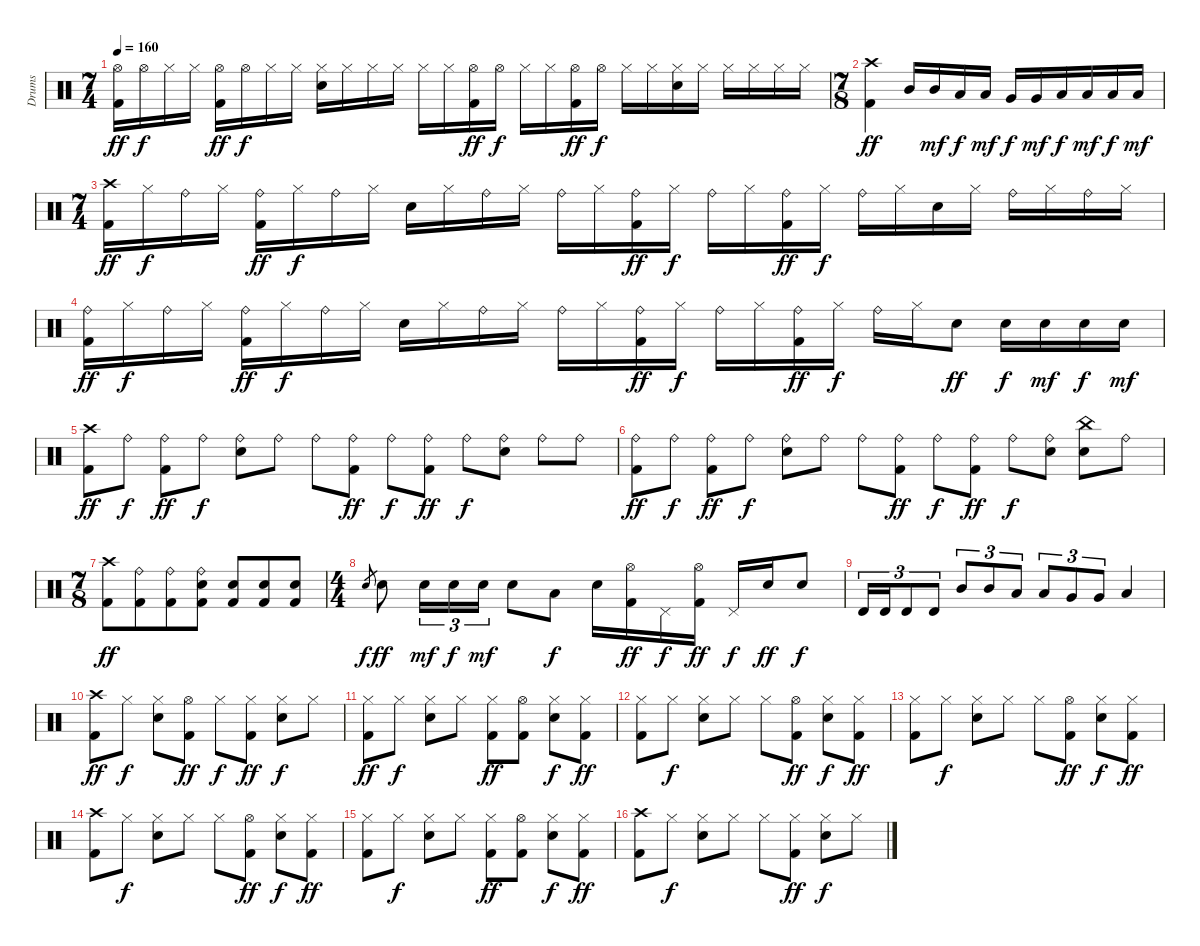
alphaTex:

\track ("Drums" "Drums") {instrument percussion}
\staff {score}
\articulation defaults
\ts (7 4)
\tempo 160
\clef neutral
\ks c
("Hi-Hat (open)" "Kick (hit) 2").16{dy ff} "Hi-Hat (open)".16{dy f} "Hi-Hat (closed)".16 "Hi-Hat (closed)".16 ("Hi-Hat (open)" "Kick (hit) 2").16{dy ff} "Hi-Hat (open)".16{dy f} "Hi-Hat (closed)".16 "Hi-Hat (closed)".16 ("Hi-Hat (closed)" "Snare (hit) 2").16 "Hi-Hat (closed)".16 "Hi-Hat (closed)".16 "Hi-Hat (closed)".16 "Hi-Hat (closed)".16 "Hi-Hat (closed)".16 ("Hi-Hat (open)" "Kick (hit) 2").16{dy ff} "Hi-Hat (open)".16{dy f} "Hi-Hat (closed)".16 "Hi-Hat (closed)".16 ("Hi-Hat (open)" "Kick (hit) 2").16{dy ff} "Hi-Hat (open)".16{dy f} "Hi-Hat (closed)".16 "Hi-Hat (closed)".16 ("Hi-Hat (closed)" "Snare (hit) 2").16 "Hi-Hat (closed)".16 "Hi-Hat (closed)".16 "Hi-Hat (closed)".16 "Hi-Hat (closed)".16 "Hi-Hat (closed)".16 |
\ts (7 8)
("Crash high (hit)" "Kick (hit) 2").4{dy ff} "Mid Tom (hit)".16 "Mid Tom (hit)".16{dy mf} "Low Tom (hit)".16{dy f} "Low Tom (hit)".16{dy mf} "Very Low Tom (hit)".16{dy f} "Very Low Tom (hit)".16{dy mf} "Low Floor Tom (hit)".16{dy f} "Low Floor Tom (hit)".16{dy mf} "Low Floor Tom (hit)".16{dy f} "Low Floor Tom (hit)".16{dy mf} |
\ts (7 4)
("Crash high (hit)" "Kick (hit) 2").16{dy ff} "Hi-Hat (closed)".16{dy f} "Ride (bell)".16 "Hi-Hat (closed)".16 ("Ride (bell)" "Kick (hit) 2").16{dy ff} "Hi-Hat (closed)".16{dy f} "Ride (bell)".16 "Hi-Hat (closed)".16 "Snare (hit) 2".16 "Hi-Hat (closed)".16 "Ride (bell)".16 "Hi-Hat (closed)".16 "Ride (bell)".16 "Hi-Hat (closed)".16 ("Ride (bell)" "Kick (hit) 2").16{dy ff} "Hi-Hat (closed)".16{dy f} "Ride (bell)".16 "Hi-Hat (closed)".16 ("Ride (bell)" "Kick (hit) 2").16{dy ff} "Hi-Hat (closed)".16{dy f} "Ride (bell)".16 "Hi-Hat (closed)".16 "Snare (hit) 2".16 "Hi-Hat (closed)".16 "Ride (bell)".16 "Hi-Hat (closed)".16 "Ride (bell)".16 "Hi-Hat (closed)".16 |
("Ride (bell)" "Kick (hit) 2").16{dy ff} "Hi-Hat (closed)".16{dy f} "Ride (bell)".16 "Hi-Hat (closed)".16 ("Ride (bell)" "Kick (hit) 2").16{dy ff} "Hi-Hat (closed)".16{dy f} "Ride (bell)".16 "Hi-Hat (closed)".16 "Snare (hit) 2".16 "Hi-Hat (closed)".16 "Ride (bell)".16 "Hi-Hat (closed)".16 "Ride (bell)".16 "Hi-Hat (closed)".16 ("Ride (bell)" "Kick (hit) 2").16{dy ff} "Hi-Hat (closed)".16{dy f} "Ride (bell)".16 "Hi-Hat (closed)".16 ("Ride (bell)" "Kick (hit) 2").16{dy ff} "Hi-Hat (closed)".16{dy f} "Ride (bell)".16 "Hi-Hat (closed)".16 "Snare (hit) 2".8{dy ff} "Snare (hit) 2".16{dy f} "Snare (hit) 2".16{dy mf} "Snare (hit) 2".16{dy f} "Snare (hit) 2".16{dy mf} |
("Crash high (hit)" "Kick (hit) 2").8{dy ff} "Ride (bell)".8{dy f} ("Ride (bell)" "Kick (hit) 2").8{dy ff} "Ride (bell)".8{dy f} ("Ride (bell)" "Snare (hit) 2").8 "Ride (bell)".8 "Ride (bell)".8 ("Ride (bell)" "Kick (hit) 2").8{dy ff} "Ride (bell)".8{dy f} ("Ride (bell)" "Kick (hit) 2").8{dy ff} "Ride (bell)".8{dy f} ("Ride (bell)" "Snare (hit) 2").8 "Ride (bell)".8 "Ride (bell)".8 |
("Ride (bell)" "Kick (hit) 2").8{dy ff} "Ride (bell)".8{dy f} ("Ride (bell)" "Kick (hit) 2").8{dy ff} "Ride (bell)".8{dy f} ("Ride (bell)" "Snare (hit) 2").8 "Ride (bell)".8 "Ride (bell)".8 ("Ride (bell)" "Kick (hit) 2").8{dy ff} "Ride (bell)".8{dy f} ("Ride (bell)" "Kick (hit) 2").8{dy ff} "Ride (bell)".8{dy f} ("Ride (bell)" "Snare (hit) 2").8 ("China (hit)" "Snare (hit) 2").8 "Ride (bell)".8 |
\ts (7 8)
("Crash high (hit)" "Kick (hit) 2").8{dy ff} ("Ride (bell)" "Kick (hit) 2").8 ("Ride (bell)" "Kick (hit) 2").8 ("Ride (bell)" "Snare (hit) 2" "Kick (hit) 2").8 ("Snare (hit) 2" "Kick (hit) 2").8 ("Snare (hit) 2" "Kick (hit) 2").8 ("Snare (hit) 2" "Kick (hit) 2").8 |
\ts (4 4)
"Snare (hit) 2".8{gr dy f} "Snare (hit) 2".8{dy ff} "Snare (hit) 2".16{tu (3 2) dy mf} "Snare (hit) 2".16{tu (3 2) dy f} "Snare (hit) 2".16{tu (3 2) dy mf} "Snare (hit) 2".8 "Low Tom (hit)".8{dy f} "Snare (hit) 2".16 ("Hi-Hat (open)" "Kick (hit) 2").16{dy ff} "Pedal Hi-Hat (hit)".16{dy f} ("Hi-Hat (open)" "Kick (hit) 2").16{dy ff} "Pedal Hi-Hat (hit)".16{dy f} "Snare (hit) 2".16{dy ff} "Snare (hit) 2".8{dy f} |
"Timbale high (hit)".16{tu (3 2)} "Timbale high (hit)".16{tu (3 2)} "Timbale high (hit)".8{tu (3 2)} "Timbale high (hit)".8{tu (3 2)} "Mid Tom (hit)".8{tu (3 2)} "Mid Tom (hit)".8{tu (3 2)} "Low Tom (hit)".8{tu (3 2)} "Low Tom (hit)".8{tu (3 2)} "Very Low Tom (hit)".8{tu (3 2)} "Very Low Tom (hit)".8{tu (3 2)} "Low Floor Tom (hit)".4 |
("Crash high (hit)" "Kick (hit) 2").8{dy ff} "Hi-Hat (closed)".8{dy f} ("Hi-Hat (closed)" "Snare (hit) 2").8 ("Hi-Hat (open)" "Kick (hit) 2").8{dy ff} "Hi-Hat (closed)".8{dy f} ("Hi-Hat (closed)" "Kick (hit) 2").8{dy ff} ("Hi-Hat (closed)" "Snare (hit) 2").8{dy f} "Hi-Hat (closed)".8 |
("Hi-Hat (closed)" "Kick (hit) 2").8{dy ff} "Hi-Hat (closed)".8{dy f} ("Hi-Hat (closed)" "Snare (hit) 2").8 "Hi-Hat (closed)".8 ("Hi-Hat (closed)" "Kick (hit) 2").8{dy ff} ("Hi-Hat (open)" "Kick (hit) 2").8 ("Hi-Hat (closed)" "Snare (hit) 2").8{dy f} ("Hi-Hat (closed)" "Kick (hit) 2").8{dy ff} |
("Hi-Hat (closed)" "Kick (hit) 2").8 "Hi-Hat (closed)".8{dy f} ("Hi-Hat (closed)" "Snare (hit) 2").8 "Hi-Hat (closed)".8 "Hi-Hat (closed)".8 ("Hi-Hat (open)" "Kick (hit) 2").8{dy ff} ("Hi-Hat (closed)" "Snare (hit) 2").8{dy f} ("Hi-Hat (closed)" "Kick (hit) 2").8{dy ff} |
("Hi-Hat (closed)" "Kick (hit) 2").8 "Hi-Hat (closed)".8{dy f} ("Hi-Hat (closed)" "Snare (hit) 2").8 "Hi-Hat (closed)".8 "Hi-Hat (closed)".8 ("Hi-Hat (open)" "Kick (hit) 2").8{dy ff} ("Hi-Hat (closed)" "Snare (hit) 2").8{dy f} ("Hi-Hat (closed)" "Kick (hit) 2").8{dy ff} |
("Crash high (hit)" "Kick (hit) 2").8 "Hi-Hat (closed)".8{dy f} ("Hi-Hat (closed)" "Snare (hit) 2").8 "Hi-Hat (closed)".8 "Hi-Hat (closed)".8 ("Hi-Hat (open)" "Kick (hit) 2").8{dy ff} ("Hi-Hat (closed)" "Snare (hit) 2").8{dy f} ("Hi-Hat (closed)" "Kick (hit) 2").8{dy ff} |
("Hi-Hat (closed)" "Kick (hit) 2").8 "Hi-Hat (closed)".8{dy f} ("Hi-Hat (closed)" "Snare (hit) 2").8 "Hi-Hat (closed)".8 ("Hi-Hat (closed)" "Kick (hit) 2").8{dy ff} ("Hi-Hat (open)" "Kick (hit) 2").8 ("Hi-Hat (closed)" "Snare (hit) 2").8{dy f} ("Hi-Hat (closed)" "Kick (hit) 2").8{dy ff} |
("Crash high (hit)" "Kick (hit) 2").8 "Hi-Hat (closed)".8{dy f} ("Hi-Hat (closed)" "Snare (hit) 2").8 "Hi-Hat (closed)".8 "Hi-Hat (closed)".8 ("Hi-Hat (closed)" "Kick (hit) 2").8{dy ff} ("Hi-Hat (closed)" "Snare (hit) 2").8{dy f} "Hi-Hat (closed)".8
